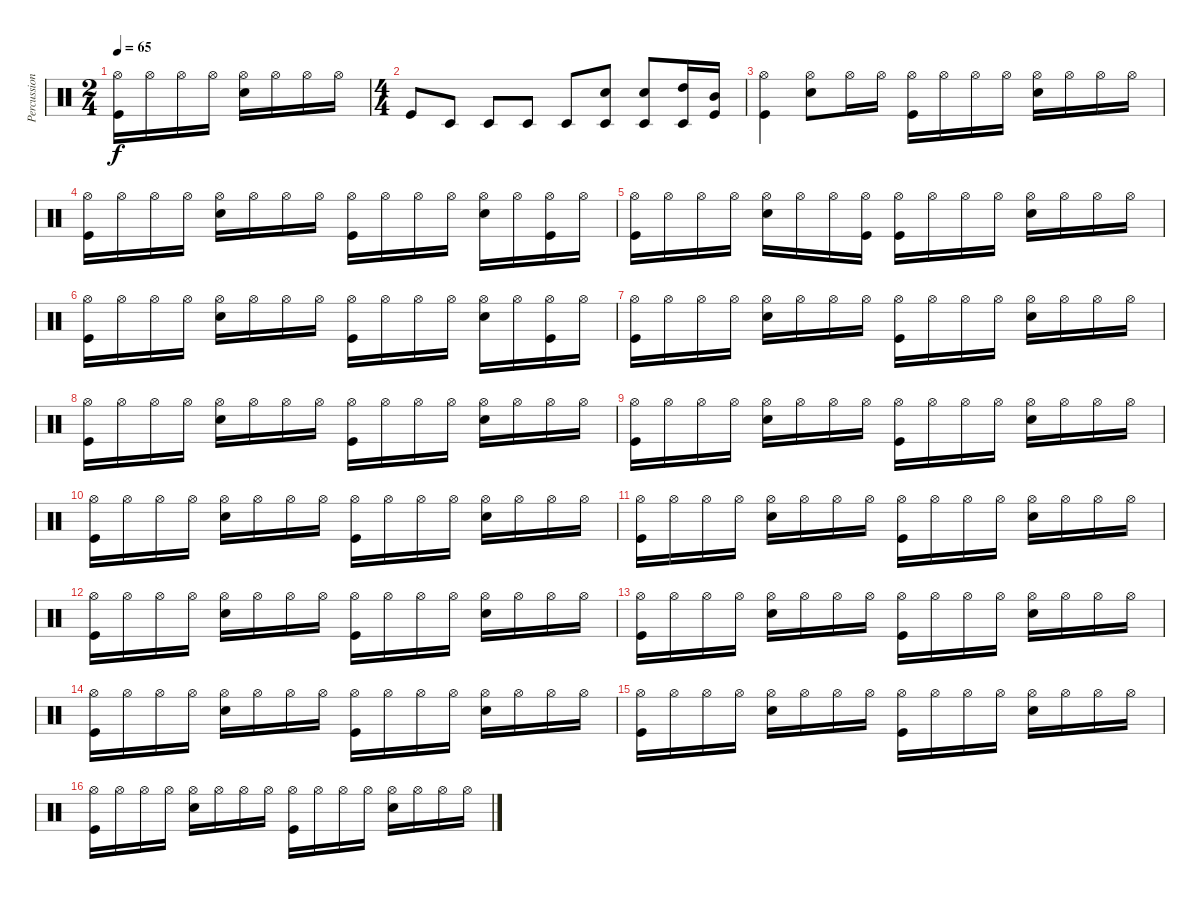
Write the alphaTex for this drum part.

\track ("Percussion" "Percussion") {instrument percussion}
\staff {score}
\articulation defaults
\ts (2 4)
\tempo 65
\clef neutral
\ks c
("Hi-Hat (open)" "Kick (hit)").16{dy f} "Hi-Hat (open)".16 "Hi-Hat (open)".16 "Hi-Hat (open)".16 ("Hi-Hat (open)" "Snare (hit) 2").16 "Hi-Hat (open)".16 "Hi-Hat (open)".16 "Hi-Hat (open)".16 |
\ts (4 4)
"Kick (hit)".8 "Timbale low (hit)".8 "Timbale low (hit)".8 "Timbale low (hit)".8 "Timbale low (hit)".8 ("Snare (hit) 2" "Timbale low (hit)").8 ("Snare (hit) 2" "Timbale low (hit)").8 ("High Tom (hit)" "Timbale low (hit)").16 ("Mid Tom (hit)" "Kick (hit)").16 |
("Hi-Hat (open)" "Kick (hit)").4 ("Hi-Hat (open)" "Snare (hit) 2").8 "Hi-Hat (open)".16 "Hi-Hat (open)".16 ("Hi-Hat (open)" "Kick (hit)").16 "Hi-Hat (open)".16 "Hi-Hat (open)".16 "Hi-Hat (open)".16 ("Hi-Hat (open)" "Snare (hit) 2").16 "Hi-Hat (open)".16 "Hi-Hat (open)".16 "Hi-Hat (open)".16 |
("Hi-Hat (open)" "Kick (hit)").16 "Hi-Hat (open)".16 "Hi-Hat (open)".16 "Hi-Hat (open)".16 ("Hi-Hat (open)" "Snare (hit) 2").16 "Hi-Hat (open)".16 "Hi-Hat (open)".16 "Hi-Hat (open)".16 ("Hi-Hat (open)" "Kick (hit)").16 "Hi-Hat (open)".16 "Hi-Hat (open)".16 "Hi-Hat (open)".16 ("Hi-Hat (open)" "Snare (hit) 2").16 "Hi-Hat (open)".16 ("Hi-Hat (open)" "Kick (hit)").16 "Hi-Hat (open)".16 |
("Hi-Hat (open)" "Kick (hit)").16 "Hi-Hat (open)".16 "Hi-Hat (open)".16 "Hi-Hat (open)".16 ("Hi-Hat (open)" "Snare (hit) 2").16 "Hi-Hat (open)".16 "Hi-Hat (open)".16 ("Hi-Hat (open)" "Kick (hit)").16 ("Hi-Hat (open)" "Kick (hit)").16 "Hi-Hat (open)".16 "Hi-Hat (open)".16 "Hi-Hat (open)".16 ("Hi-Hat (open)" "Snare (hit) 2").16 "Hi-Hat (open)".16 "Hi-Hat (open)".16 "Hi-Hat (open)".16 |
("Hi-Hat (open)" "Kick (hit)").16 "Hi-Hat (open)".16 "Hi-Hat (open)".16 "Hi-Hat (open)".16 ("Hi-Hat (open)" "Snare (hit) 2").16 "Hi-Hat (open)".16 "Hi-Hat (open)".16 "Hi-Hat (open)".16 ("Hi-Hat (open)" "Kick (hit)").16 "Hi-Hat (open)".16 "Hi-Hat (open)".16 "Hi-Hat (open)".16 ("Hi-Hat (open)" "Snare (hit) 2").16 "Hi-Hat (open)".16 ("Hi-Hat (open)" "Kick (hit)").16 "Hi-Hat (open)".16 |
("Hi-Hat (open)" "Kick (hit)").16 "Hi-Hat (open)".16 "Hi-Hat (open)".16 "Hi-Hat (open)".16 ("Hi-Hat (open)" "Snare (hit) 2").16 "Hi-Hat (open)".16 "Hi-Hat (open)".16 "Hi-Hat (open)".16 ("Hi-Hat (open)" "Kick (hit)").16 "Hi-Hat (open)".16 "Hi-Hat (open)".16 "Hi-Hat (open)".16 ("Hi-Hat (open)" "Snare (hit) 2").16 "Hi-Hat (open)".16 "Hi-Hat (open)".16 "Hi-Hat (open)".16 |
("Hi-Hat (open)" "Kick (hit)").16 "Hi-Hat (open)".16 "Hi-Hat (open)".16 "Hi-Hat (open)".16 ("Hi-Hat (open)" "Snare (hit) 2").16 "Hi-Hat (open)".16 "Hi-Hat (open)".16 "Hi-Hat (open)".16 ("Hi-Hat (open)" "Kick (hit)").16 "Hi-Hat (open)".16 "Hi-Hat (open)".16 "Hi-Hat (open)".16 ("Hi-Hat (open)" "Snare (hit) 2").16 "Hi-Hat (open)".16 "Hi-Hat (open)".16 "Hi-Hat (open)".16 |
("Hi-Hat (open)" "Kick (hit)").16 "Hi-Hat (open)".16 "Hi-Hat (open)".16 "Hi-Hat (open)".16 ("Hi-Hat (open)" "Snare (hit) 2").16 "Hi-Hat (open)".16 "Hi-Hat (open)".16 "Hi-Hat (open)".16 ("Hi-Hat (open)" "Kick (hit)").16 "Hi-Hat (open)".16 "Hi-Hat (open)".16 "Hi-Hat (open)".16 ("Hi-Hat (open)" "Snare (hit) 2").16 "Hi-Hat (open)".16 "Hi-Hat (open)".16 "Hi-Hat (open)".16 |
("Hi-Hat (open)" "Kick (hit)").16 "Hi-Hat (open)".16 "Hi-Hat (open)".16 "Hi-Hat (open)".16 ("Hi-Hat (open)" "Snare (hit) 2").16 "Hi-Hat (open)".16 "Hi-Hat (open)".16 "Hi-Hat (open)".16 ("Hi-Hat (open)" "Kick (hit)").16 "Hi-Hat (open)".16 "Hi-Hat (open)".16 "Hi-Hat (open)".16 ("Hi-Hat (open)" "Snare (hit) 2").16 "Hi-Hat (open)".16 "Hi-Hat (open)".16 "Hi-Hat (open)".16 |
("Hi-Hat (open)" "Kick (hit)").16 "Hi-Hat (open)".16 "Hi-Hat (open)".16 "Hi-Hat (open)".16 ("Hi-Hat (open)" "Snare (hit) 2").16 "Hi-Hat (open)".16 "Hi-Hat (open)".16 "Hi-Hat (open)".16 ("Hi-Hat (open)" "Kick (hit)").16 "Hi-Hat (open)".16 "Hi-Hat (open)".16 "Hi-Hat (open)".16 ("Hi-Hat (open)" "Snare (hit) 2").16 "Hi-Hat (open)".16 "Hi-Hat (open)".16 "Hi-Hat (open)".16 |
("Hi-Hat (open)" "Kick (hit)").16 "Hi-Hat (open)".16 "Hi-Hat (open)".16 "Hi-Hat (open)".16 ("Hi-Hat (open)" "Snare (hit) 2").16 "Hi-Hat (open)".16 "Hi-Hat (open)".16 "Hi-Hat (open)".16 ("Hi-Hat (open)" "Kick (hit)").16 "Hi-Hat (open)".16 "Hi-Hat (open)".16 "Hi-Hat (open)".16 ("Hi-Hat (open)" "Snare (hit) 2").16 "Hi-Hat (open)".16 "Hi-Hat (open)".16 "Hi-Hat (open)".16 |
("Hi-Hat (open)" "Kick (hit)").16 "Hi-Hat (open)".16 "Hi-Hat (open)".16 "Hi-Hat (open)".16 ("Hi-Hat (open)" "Snare (hit) 2").16 "Hi-Hat (open)".16 "Hi-Hat (open)".16 "Hi-Hat (open)".16 ("Hi-Hat (open)" "Kick (hit)").16 "Hi-Hat (open)".16 "Hi-Hat (open)".16 "Hi-Hat (open)".16 ("Hi-Hat (open)" "Snare (hit) 2").16 "Hi-Hat (open)".16 "Hi-Hat (open)".16 "Hi-Hat (open)".16 |
("Hi-Hat (open)" "Kick (hit)").16 "Hi-Hat (open)".16 "Hi-Hat (open)".16 "Hi-Hat (open)".16 ("Hi-Hat (open)" "Snare (hit) 2").16 "Hi-Hat (open)".16 "Hi-Hat (open)".16 "Hi-Hat (open)".16 ("Hi-Hat (open)" "Kick (hit)").16 "Hi-Hat (open)".16 "Hi-Hat (open)".16 "Hi-Hat (open)".16 ("Hi-Hat (open)" "Snare (hit) 2").16 "Hi-Hat (open)".16 "Hi-Hat (open)".16 "Hi-Hat (open)".16 |
("Hi-Hat (open)" "Kick (hit)").16 "Hi-Hat (open)".16 "Hi-Hat (open)".16 "Hi-Hat (open)".16 ("Hi-Hat (open)" "Snare (hit) 2").16 "Hi-Hat (open)".16 "Hi-Hat (open)".16 "Hi-Hat (open)".16 ("Hi-Hat (open)" "Kick (hit)").16 "Hi-Hat (open)".16 "Hi-Hat (open)".16 "Hi-Hat (open)".16 ("Hi-Hat (open)" "Snare (hit) 2").16 "Hi-Hat (open)".16 "Hi-Hat (open)".16 "Hi-Hat (open)".16 |
("Hi-Hat (open)" "Kick (hit)").16 "Hi-Hat (open)".16 "Hi-Hat (open)".16 "Hi-Hat (open)".16 ("Hi-Hat (open)" "Snare (hit) 2").16 "Hi-Hat (open)".16 "Hi-Hat (open)".16 "Hi-Hat (open)".16 ("Hi-Hat (open)" "Kick (hit)").16 "Hi-Hat (open)".16 "Hi-Hat (open)".16 "Hi-Hat (open)".16 ("Hi-Hat (open)" "Snare (hit) 2").16 "Hi-Hat (open)".16 "Hi-Hat (open)".16 "Hi-Hat (open)".16
